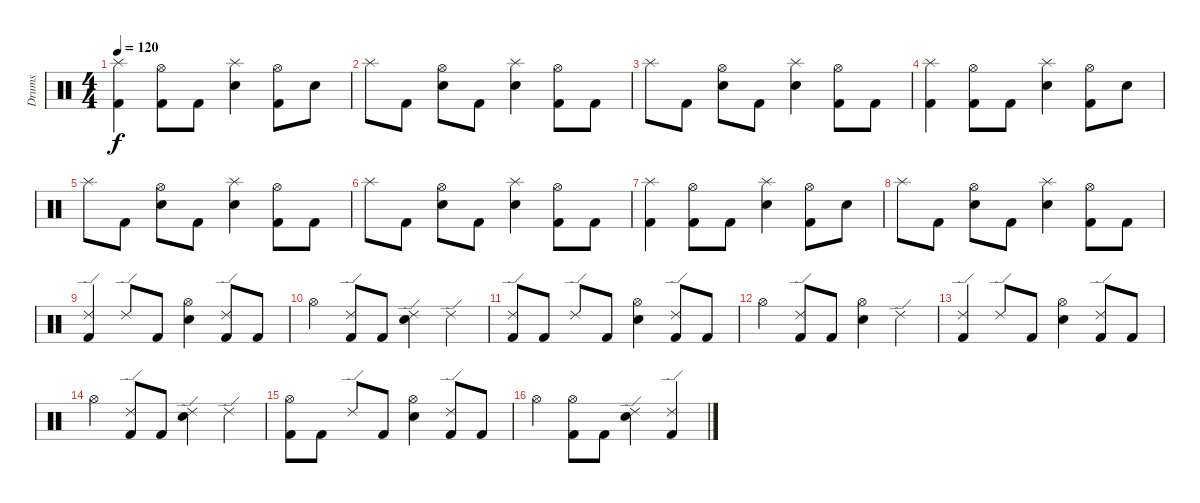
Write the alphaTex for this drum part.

\track ("Drums" "Drums") {instrument percussion}
\staff {score}
\articulation defaults
\ts (4 4)
\tempo 120
\clef neutral
\ks c
("Splash (hit)" "Kick (hit) 2").4{dy f} ("Hi-Hat (open)" "Kick (hit) 2").8 "Kick (hit) 2".8 ("Splash (hit)" "Snare (hit) 2").4 ("Hi-Hat (open)" "Kick (hit) 2").8 "Snare (hit) 2".8 |
"Splash (hit)".8 "Kick (hit) 2".8 ("Hi-Hat (open)" "Snare (hit) 2").8 "Kick (hit) 2".8 ("Splash (hit)" "Snare (hit) 2").4 ("Hi-Hat (open)" "Kick (hit) 2").8 "Kick (hit) 2".8 |
"Splash (hit)".8 "Kick (hit) 2".8 ("Hi-Hat (open)" "Snare (hit) 2").8 "Kick (hit) 2".8 ("Splash (hit)" "Snare (hit) 2").4 ("Hi-Hat (open)" "Kick (hit) 2").8 "Kick (hit) 2".8 |
("Splash (hit)" "Kick (hit) 2").4 ("Hi-Hat (open)" "Kick (hit) 2").8 "Kick (hit) 2".8 ("Splash (hit)" "Snare (hit) 2").4 ("Hi-Hat (open)" "Kick (hit) 2").8 "Snare (hit) 2".8 |
"Splash (hit)".8 "Kick (hit) 2".8 ("Hi-Hat (open)" "Snare (hit) 2").8 "Kick (hit) 2".8 ("Splash (hit)" "Snare (hit) 2").4 ("Hi-Hat (open)" "Kick (hit) 2").8 "Kick (hit) 2".8 |
"Splash (hit)".8 "Kick (hit) 2".8 ("Hi-Hat (open)" "Snare (hit) 2").8 "Kick (hit) 2".8 ("Splash (hit)" "Snare (hit) 2").4 ("Hi-Hat (open)" "Kick (hit) 2").8 "Kick (hit) 2".8 |
("Splash (hit)" "Kick (hit) 2").4 ("Hi-Hat (open)" "Kick (hit) 2").8 "Kick (hit) 2".8 ("Splash (hit)" "Snare (hit) 2").4 ("Hi-Hat (open)" "Kick (hit) 2").8 "Snare (hit) 2".8 |
"Splash (hit)".8 "Kick (hit) 2".8 ("Hi-Hat (open)" "Snare (hit) 2").8 "Kick (hit) 2".8 ("Splash (hit)" "Snare (hit) 2").4 ("Hi-Hat (open)" "Kick (hit) 2").8 "Kick (hit) 2".8 |
("Ride (edge) 2" "Kick (hit) 2").4 "Ride (edge) 2".8 "Kick (hit) 2".8 ("Hi-Hat (open)" "Snare (hit) 2").4 ("Ride (edge) 2" "Kick (hit) 2").8 "Kick (hit) 2".8 |
"Hi-Hat (open)".4 ("Ride (edge) 2" "Kick (hit) 2").8 "Kick (hit) 2".8 ("Ride (edge) 2" "Snare (hit) 2").4 "Ride (edge) 2".4 |
("Ride (edge) 2" "Kick (hit) 2").8 "Kick (hit) 2".8 "Ride (edge) 2".8 "Kick (hit) 2".8 ("Hi-Hat (open)" "Snare (hit) 2").4 ("Ride (edge) 2" "Kick (hit) 2").8 "Kick (hit) 2".8 |
"Hi-Hat (open)".4 ("Ride (edge) 2" "Kick (hit) 2").8 "Kick (hit) 2".8 ("Hi-Hat (open)" "Snare (hit) 2").4 "Ride (edge) 2".4 |
("Ride (edge) 2" "Kick (hit) 2").4 "Ride (edge) 2".8 "Kick (hit) 2".8 ("Hi-Hat (open)" "Snare (hit) 2").4 ("Ride (edge) 2" "Kick (hit) 2").8 "Kick (hit) 2".8 |
"Hi-Hat (open)".4 ("Ride (edge) 2" "Kick (hit) 2").8 "Kick (hit) 2".8 ("Ride (edge) 2" "Snare (hit) 2").4 "Ride (edge) 2".4 |
("Hi-Hat (open)" "Kick (hit) 2").8 "Kick (hit) 2".8 "Ride (edge) 2".8 "Kick (hit) 2".8 ("Hi-Hat (open)" "Snare (hit) 2").4 ("Ride (edge) 2" "Kick (hit) 2").8 "Kick (hit) 2".8 |
"Hi-Hat (open)".4 ("Hi-Hat (open)" "Kick (hit) 2").8 "Kick (hit) 2".8 ("Ride (edge) 2" "Snare (hit) 2").4 ("Ride (edge) 2" "Kick (hit) 2").4
